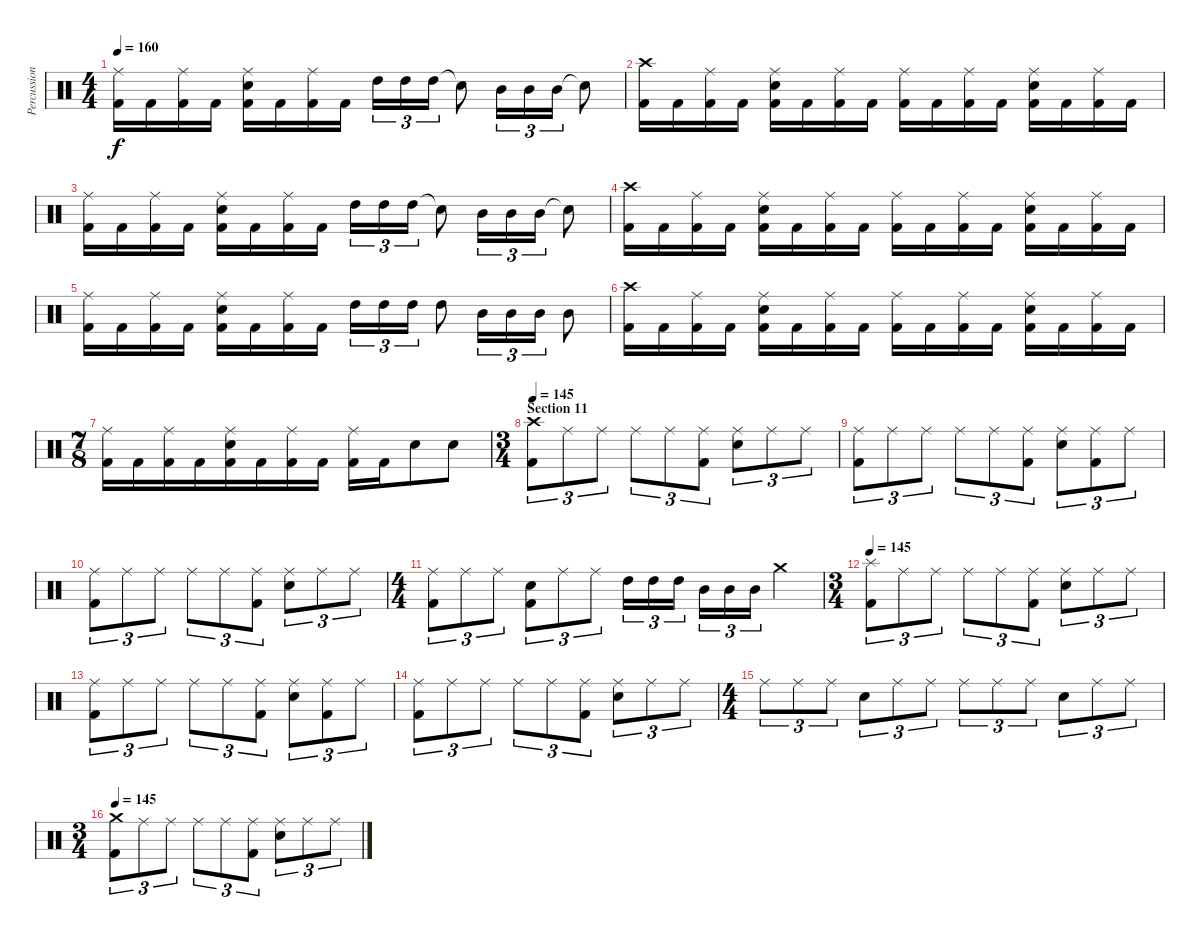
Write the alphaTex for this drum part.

\track ("Percussion" "Percussion") {instrument percussion}
\staff {score}
\articulation defaults
\ts (4 4)
\tempo 160
\clef neutral
\ks c
("Ride (middle)" "Kick (hit) 2").16{dy f} "Kick (hit) 2".16 ("Ride (middle)" "Kick (hit) 2").16 "Kick (hit) 2".16 ("Ride (middle)" "Electric Snare (hit)" "Kick (hit) 2").16 "Kick (hit) 2".16 ("Ride (middle)" "Kick (hit) 2").16 "Kick (hit) 2".16 "High Tom (hit)".16{tu (3 2)} "High Tom (hit)".16{tu (3 2)} "High Tom (hit)".16{tu (3 2)} "Snare (hit)"{t}.8 "Mid Tom (hit)".16{tu (3 2)} "Mid Tom (hit)".16{tu (3 2)} "Mid Tom (hit)".16{tu (3 2)} "Snare (hit)"{t}.8 |
("Crash high (hit)" "Kick (hit) 2").16 "Kick (hit) 2".16 ("Ride (middle)" "Kick (hit) 2").16 "Kick (hit) 2".16 ("Ride (middle)" "Electric Snare (hit)" "Kick (hit) 2").16 "Kick (hit) 2".16 ("Ride (middle)" "Kick (hit) 2").16 "Kick (hit) 2".16 ("Ride (middle)" "Kick (hit) 2").16 "Kick (hit) 2".16 ("Ride (middle)" "Kick (hit) 2").16 "Kick (hit) 2".16 ("Ride (middle)" "Electric Snare (hit)" "Kick (hit) 2").16 "Kick (hit) 2".16 ("Ride (middle)" "Kick (hit) 2").16 "Kick (hit) 2".16 |
("Ride (middle)" "Kick (hit) 2").16 "Kick (hit) 2".16 ("Ride (middle)" "Kick (hit) 2").16 "Kick (hit) 2".16 ("Ride (middle)" "Electric Snare (hit)" "Kick (hit) 2").16 "Kick (hit) 2".16 ("Ride (middle)" "Kick (hit) 2").16 "Kick (hit) 2".16 "High Tom (hit)".16{tu (3 2)} "High Tom (hit)".16{tu (3 2)} "High Tom (hit)".16{tu (3 2)} "Snare (hit)"{t}.8 "Mid Tom (hit)".16{tu (3 2)} "Mid Tom (hit)".16{tu (3 2)} "Mid Tom (hit)".16{tu (3 2)} "Snare (hit)"{t}.8 |
("Crash high (hit)" "Kick (hit) 2").16 "Kick (hit) 2".16 ("Ride (middle)" "Kick (hit) 2").16 "Kick (hit) 2".16 ("Ride (middle)" "Electric Snare (hit)" "Kick (hit) 2").16 "Kick (hit) 2".16 ("Ride (middle)" "Kick (hit) 2").16 "Kick (hit) 2".16 ("Ride (middle)" "Kick (hit) 2").16 "Kick (hit) 2".16 ("Ride (middle)" "Kick (hit) 2").16 "Kick (hit) 2".16 ("Ride (middle)" "Electric Snare (hit)" "Kick (hit) 2").16 "Kick (hit) 2".16 ("Ride (middle)" "Kick (hit) 2").16 "Kick (hit) 2".16 |
("Ride (middle)" "Kick (hit) 2").16 "Kick (hit) 2".16 ("Ride (middle)" "Kick (hit) 2").16 "Kick (hit) 2".16 ("Ride (middle)" "Electric Snare (hit)" "Kick (hit) 2").16 "Kick (hit) 2".16 ("Ride (middle)" "Kick (hit) 2").16 "Kick (hit) 2".16 "High Tom (hit)".16{tu (3 2)} "High Tom (hit)".16{tu (3 2)} "High Tom (hit)".16{tu (3 2)} "High Tom (hit)".8 "Mid Tom (hit)".16{tu (3 2)} "Mid Tom (hit)".16{tu (3 2)} "Mid Tom (hit)".16{tu (3 2)} "Mid Tom (hit)".8 |
("Crash high (hit)" "Kick (hit) 2").16 "Kick (hit) 2".16 ("Ride (middle)" "Kick (hit) 2").16 "Kick (hit) 2".16 ("Ride (middle)" "Electric Snare (hit)" "Kick (hit) 2").16 "Kick (hit) 2".16 ("Ride (middle)" "Kick (hit) 2").16 "Kick (hit) 2".16 ("Ride (middle)" "Kick (hit) 2").16 "Kick (hit) 2".16 ("Ride (middle)" "Kick (hit) 2").16 "Kick (hit) 2".16 ("Ride (middle)" "Electric Snare (hit)" "Kick (hit) 2").16 "Kick (hit) 2".16 ("Ride (middle)" "Kick (hit) 2").16 "Kick (hit) 2".16 |
\ts (7 8)
("Ride (middle)" "Kick (hit) 2").16 "Kick (hit) 2".16 ("Ride (middle)" "Kick (hit) 2").16 "Kick (hit) 2".16 ("Ride (middle)" "Electric Snare (hit)" "Kick (hit) 2").16 "Kick (hit) 2".16 ("Ride (middle)" "Kick (hit) 2").16 "Kick (hit) 2".16 ("Ride (middle)" "Kick (hit) 2").16 "Kick (hit) 2".16 "Electric Snare (hit)".8 "Electric Snare (hit)".8 |
\ts (3 4)
\section ("" "Section 11")
\tempo 145
("Crash high (hit)" "Kick (hit) 2").8{tu (3 2)} "Ride (middle)".8{tu (3 2)} "Ride (middle)".8{tu (3 2)} "Ride (middle)".8{tu (3 2)} "Ride (middle)".8{tu (3 2)} ("Ride (middle)" "Kick (hit) 2").8{tu (3 2)} ("Ride (middle)" "Electric Snare (hit)").8{tu (3 2)} "Ride (middle)".8{tu (3 2)} "Ride (middle)".8{tu (3 2)} |
("Ride (middle)" "Kick (hit) 2").8{tu (3 2)} "Ride (middle)".8{tu (3 2)} "Ride (middle)".8{tu (3 2)} "Ride (middle)".8{tu (3 2)} "Ride (middle)".8{tu (3 2)} ("Ride (middle)" "Kick (hit) 2").8{tu (3 2)} ("Ride (middle)" "Electric Snare (hit)").8{tu (3 2)} ("Ride (middle)" "Kick (hit) 2").8{tu (3 2)} "Ride (middle)".8{tu (3 2)} |
("Ride (middle)" "Kick (hit) 2").8{tu (3 2)} "Ride (middle)".8{tu (3 2)} "Ride (middle)".8{tu (3 2)} "Ride (middle)".8{tu (3 2)} "Ride (middle)".8{tu (3 2)} ("Ride (middle)" "Kick (hit) 2").8{tu (3 2)} ("Ride (middle)" "Electric Snare (hit)").8{tu (3 2)} "Ride (middle)".8{tu (3 2)} "Ride (middle)".8{tu (3 2)} |
\ts (4 4)
("Ride (middle)" "Kick (hit) 2").8{tu (3 2)} "Ride (middle)".8{tu (3 2)} "Ride (middle)".8{tu (3 2)} ("Electric Snare (hit)" "Kick (hit) 2").8{tu (3 2)} "Ride (middle)".8{tu (3 2)} "Ride (middle)".8{tu (3 2)} "High Tom (hit)".16{tu (3 2)} "High Tom (hit)".16{tu (3 2)} "High Tom (hit)".16{tu (3 2)} "Mid Tom (hit)".16{tu (3 2)} "Mid Tom (hit)".16{tu (3 2)} "Mid Tom (hit)".16{tu (3 2)} "Crash medium (hit)".4 |
\ts (3 4)
\tempo 145
("Splash (hit)" "Kick (hit) 2").8{tu (3 2)} "Ride (middle)".8{tu (3 2)} "Ride (middle)".8{tu (3 2)} "Ride (middle)".8{tu (3 2)} "Ride (middle)".8{tu (3 2)} ("Ride (middle)" "Kick (hit) 2").8{tu (3 2)} ("Ride (middle)" "Electric Snare (hit)").8{tu (3 2)} "Ride (middle)".8{tu (3 2)} "Ride (middle)".8{tu (3 2)} |
("Ride (middle)" "Kick (hit) 2").8{tu (3 2)} "Ride (middle)".8{tu (3 2)} "Ride (middle)".8{tu (3 2)} "Ride (middle)".8{tu (3 2)} "Ride (middle)".8{tu (3 2)} ("Ride (middle)" "Kick (hit) 2").8{tu (3 2)} ("Ride (middle)" "Electric Snare (hit)").8{tu (3 2)} ("Ride (middle)" "Kick (hit) 2").8{tu (3 2)} "Ride (middle)".8{tu (3 2)} |
("Ride (middle)" "Kick (hit) 2").8{tu (3 2)} "Ride (middle)".8{tu (3 2)} "Ride (middle)".8{tu (3 2)} "Ride (middle)".8{tu (3 2)} "Ride (middle)".8{tu (3 2)} ("Ride (middle)" "Kick (hit) 2").8{tu (3 2)} ("Ride (middle)" "Electric Snare (hit)").8{tu (3 2)} "Ride (middle)".8{tu (3 2)} "Ride (middle)".8{tu (3 2)} |
\ts (4 4)
"Ride (middle)".8{tu (3 2)} "Ride (middle)".8{tu (3 2)} "Ride (middle)".8{tu (3 2)} "Electric Snare (hit)".8{tu (3 2)} "Ride (middle)".8{tu (3 2)} "Ride (middle)".8{tu (3 2)} "Ride (middle)".8{tu (3 2)} "Ride (middle)".8{tu (3 2)} "Ride (middle)".8{tu (3 2)} "Electric Snare (hit)".8{tu (3 2)} "Ride (middle)".8{tu (3 2)} "Ride (middle)".8{tu (3 2)} |
\ts (3 4)
\tempo 145
("Crash medium (hit)" "Kick (hit) 2").8{tu (3 2)} "Ride (middle)".8{tu (3 2)} "Ride (middle)".8{tu (3 2)} "Ride (middle)".8{tu (3 2)} "Ride (middle)".8{tu (3 2)} ("Ride (middle)" "Kick (hit) 2").8{tu (3 2)} ("Ride (middle)" "Electric Snare (hit)").8{tu (3 2)} "Ride (middle)".8{tu (3 2)} "Ride (middle)".8{tu (3 2)}
